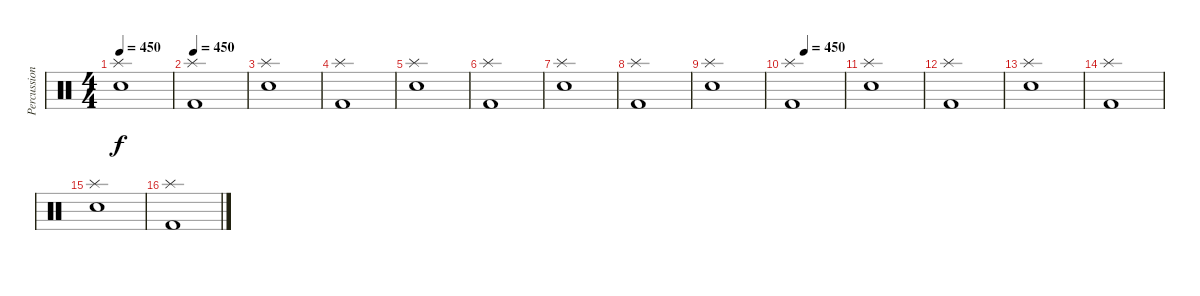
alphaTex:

\track ("Percussions" "Percussion") {instrument percussion}
\staff {score}
\articulation defaults
\ts (4 4)
\tempo 450
\clef neutral
\ks c
("Snare (hit) 2" "Splash (hit)").1{dy f} |
\tempo 450
("Splash (hit)" "Kick (hit) 2").1 |
("Snare (hit) 2" "Splash (hit)").1 |
("Splash (hit)" "Kick (hit) 2").1 |
("Snare (hit) 2" "Splash (hit)").1 |
("Splash (hit)" "Kick (hit) 2").1 |
("Snare (hit) 2" "Splash (hit)").1 |
("Splash (hit)" "Kick (hit) 2").1 |
("Snare (hit) 2" "Splash (hit)").1 |
\tempo (450 0.25)
("Splash (hit)" "Kick (hit) 2").1 |
("Snare (hit) 2" "Splash (hit)").1 |
("Splash (hit)" "Kick (hit) 2").1 |
("Snare (hit) 2" "Splash (hit)").1 |
("Splash (hit)" "Kick (hit) 2").1 |
("Snare (hit) 2" "Splash (hit)").1 |
("Splash (hit)" "Kick (hit) 2").1
